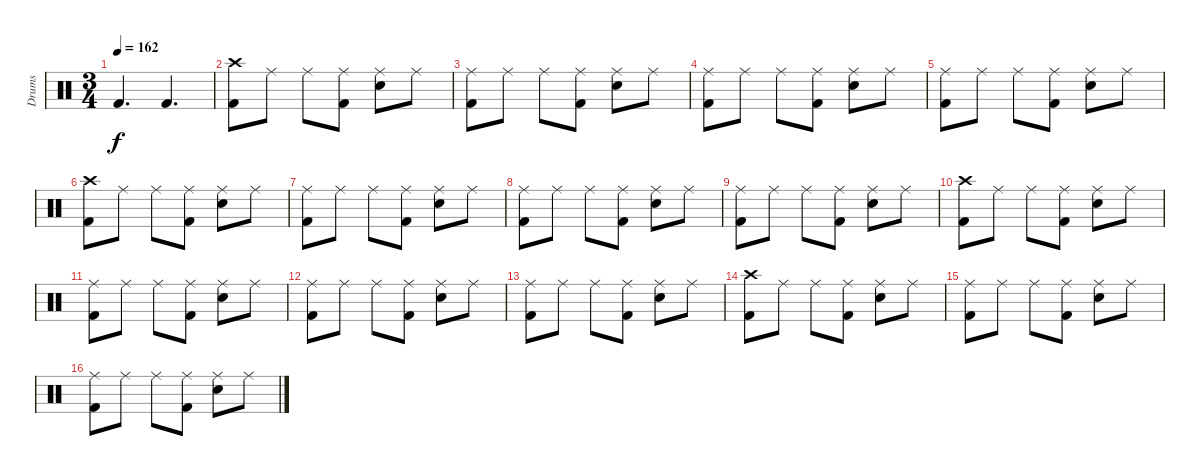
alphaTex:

\track ("Drums" "Drums") {instrument percussion}
\staff {score}
\articulation defaults
\ts (3 4)
\tempo 162
\clef neutral
\ks c "Kick (hit) 2".4{d dy f} "Kick (hit) 2".4{d}
|
("Crash high (hit)" "Kick (hit) 2").8 "Ride (middle)".8 "Ride (middle)".8 ("Ride (middle)" "Kick (hit) 2").8 ("Ride (middle)" "Snare (hit) 2").8 "Ride (middle)".8 |
("Ride (middle)" "Kick (hit) 2").8 "Ride (middle)".8 "Ride (middle)".8 ("Ride (middle)" "Kick (hit) 2").8 ("Ride (middle)" "Snare (hit) 2").8 "Ride (middle)".8 |
("Ride (middle)" "Kick (hit) 2").8 "Ride (middle)".8 "Ride (middle)".8 ("Ride (middle)" "Kick (hit) 2").8 ("Ride (middle)" "Snare (hit) 2").8 "Ride (middle)".8 |
("Ride (middle)" "Kick (hit) 2").8 "Ride (middle)".8 "Ride (middle)".8 ("Ride (middle)" "Kick (hit) 2").8 ("Ride (middle)" "Snare (hit) 2").8 "Ride (middle)".8 |
("Crash high (hit)" "Kick (hit) 2").8 "Ride (middle)".8 "Ride (middle)".8 ("Ride (middle)" "Kick (hit) 2").8 ("Ride (middle)" "Snare (hit) 2").8 "Ride (middle)".8 |
("Ride (middle)" "Kick (hit) 2").8 "Ride (middle)".8 "Ride (middle)".8 ("Ride (middle)" "Kick (hit) 2").8 ("Ride (middle)" "Snare (hit) 2").8 "Ride (middle)".8 |
("Ride (middle)" "Kick (hit) 2").8 "Ride (middle)".8 "Ride (middle)".8 ("Ride (middle)" "Kick (hit) 2").8 ("Ride (middle)" "Snare (hit) 2").8 "Ride (middle)".8 |
("Ride (middle)" "Kick (hit) 2").8 "Ride (middle)".8 "Ride (middle)".8 ("Ride (middle)" "Kick (hit) 2").8 ("Ride (middle)" "Snare (hit) 2").8 "Ride (middle)".8 |
("Crash high (hit)" "Kick (hit) 2").8 "Ride (middle)".8 "Ride (middle)".8 ("Ride (middle)" "Kick (hit) 2").8 ("Ride (middle)" "Snare (hit) 2").8 "Ride (middle)".8 |
("Ride (middle)" "Kick (hit) 2").8 "Ride (middle)".8 "Ride (middle)".8 ("Ride (middle)" "Kick (hit) 2").8 ("Ride (middle)" "Snare (hit) 2").8 "Ride (middle)".8 |
("Ride (middle)" "Kick (hit) 2").8 "Ride (middle)".8 "Ride (middle)".8 ("Ride (middle)" "Kick (hit) 2").8 ("Ride (middle)" "Snare (hit) 2").8 "Ride (middle)".8 |
("Ride (middle)" "Kick (hit) 2").8 "Ride (middle)".8 "Ride (middle)".8 ("Ride (middle)" "Kick (hit) 2").8 ("Ride (middle)" "Snare (hit) 2").8 "Ride (middle)".8 |
("Crash high (hit)" "Kick (hit) 2").8 "Ride (middle)".8 "Ride (middle)".8 ("Ride (middle)" "Kick (hit) 2").8 ("Ride (middle)" "Snare (hit) 2").8 "Ride (middle)".8 |
("Ride (middle)" "Kick (hit) 2").8 "Ride (middle)".8 "Ride (middle)".8 ("Ride (middle)" "Kick (hit) 2").8 ("Ride (middle)" "Snare (hit) 2").8 "Ride (middle)".8 |
("Ride (middle)" "Kick (hit) 2").8 "Ride (middle)".8 "Ride (middle)".8 ("Ride (middle)" "Kick (hit) 2").8 ("Ride (middle)" "Snare (hit) 2").8 "Ride (middle)".8
